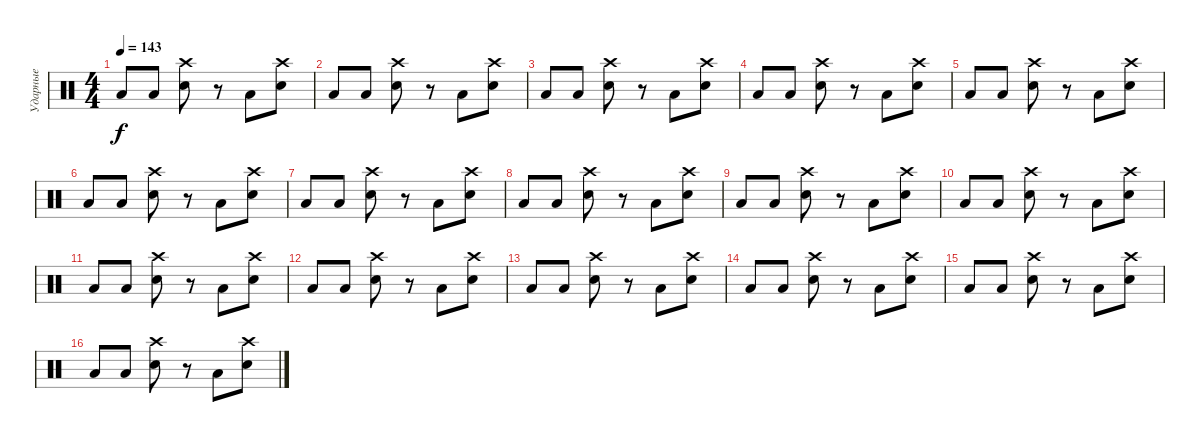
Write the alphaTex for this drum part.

\track ("Ударные" "Ударные") {instrument percussion}
\staff {score}
\articulation defaults
\ts (4 4)
\tempo 143
\clef neutral
\ks c "Low Tom (hit)".8{dy f} "Low Tom (hit)".8
("Crash high (hit)" "Snare (hit) 2").8 r.8 "Low Tom (hit)".8 ("Crash high (hit)" "Snare (hit) 2").8 |
"Low Tom (hit)".8 "Low Tom (hit)".8 ("Crash high (hit)" "Snare (hit) 2").8 r.8 "Low Tom (hit)".8 ("Crash high (hit)" "Snare (hit) 2").8 |
"Low Tom (hit)".8 "Low Tom (hit)".8 ("Crash high (hit)" "Snare (hit) 2").8 r.8 "Low Tom (hit)".8 ("Crash high (hit)" "Snare (hit) 2").8 |
"Low Tom (hit)".8 "Low Tom (hit)".8 ("Crash high (hit)" "Snare (hit) 2").8 r.8 "Low Tom (hit)".8 ("Crash high (hit)" "Snare (hit) 2").8 |
"Low Tom (hit)".8 "Low Tom (hit)".8 ("Crash high (hit)" "Snare (hit) 2").8 r.8 "Low Tom (hit)".8 ("Crash high (hit)" "Snare (hit) 2").8 |
"Low Tom (hit)".8 "Low Tom (hit)".8 ("Crash high (hit)" "Snare (hit) 2").8 r.8 "Low Tom (hit)".8 ("Crash high (hit)" "Snare (hit) 2").8 |
"Low Tom (hit)".8 "Low Tom (hit)".8 ("Crash high (hit)" "Snare (hit) 2").8 r.8 "Low Tom (hit)".8 ("Crash high (hit)" "Snare (hit) 2").8 |
"Low Tom (hit)".8 "Low Tom (hit)".8 ("Crash high (hit)" "Snare (hit) 2").8 r.8 "Low Tom (hit)".8 ("Crash high (hit)" "Snare (hit) 2").8 |
"Low Tom (hit)".8 "Low Tom (hit)".8 ("Crash high (hit)" "Snare (hit) 2").8 r.8 "Low Tom (hit)".8 ("Crash high (hit)" "Snare (hit) 2").8 |
"Low Tom (hit)".8 "Low Tom (hit)".8 ("Crash high (hit)" "Snare (hit) 2").8 r.8 "Low Tom (hit)".8 ("Crash high (hit)" "Snare (hit) 2").8 |
"Low Tom (hit)".8 "Low Tom (hit)".8 ("Crash high (hit)" "Snare (hit) 2").8 r.8 "Low Tom (hit)".8 ("Crash high (hit)" "Snare (hit) 2").8 |
"Low Tom (hit)".8 "Low Tom (hit)".8 ("Crash high (hit)" "Snare (hit) 2").8 r.8 "Low Tom (hit)".8 ("Crash high (hit)" "Snare (hit) 2").8 |
"Low Tom (hit)".8 "Low Tom (hit)".8 ("Crash high (hit)" "Snare (hit) 2").8 r.8 "Low Tom (hit)".8 ("Crash high (hit)" "Snare (hit) 2").8 |
"Low Tom (hit)".8 "Low Tom (hit)".8 ("Crash high (hit)" "Snare (hit) 2").8 r.8 "Low Tom (hit)".8 ("Crash high (hit)" "Snare (hit) 2").8 |
"Low Tom (hit)".8 "Low Tom (hit)".8 ("Crash high (hit)" "Snare (hit) 2").8 r.8 "Low Tom (hit)".8 ("Crash high (hit)" "Snare (hit) 2").8 |
"Low Tom (hit)".8 "Low Tom (hit)".8 ("Crash high (hit)" "Snare (hit) 2").8 r.8 "Low Tom (hit)".8 ("Crash high (hit)" "Snare (hit) 2").8
